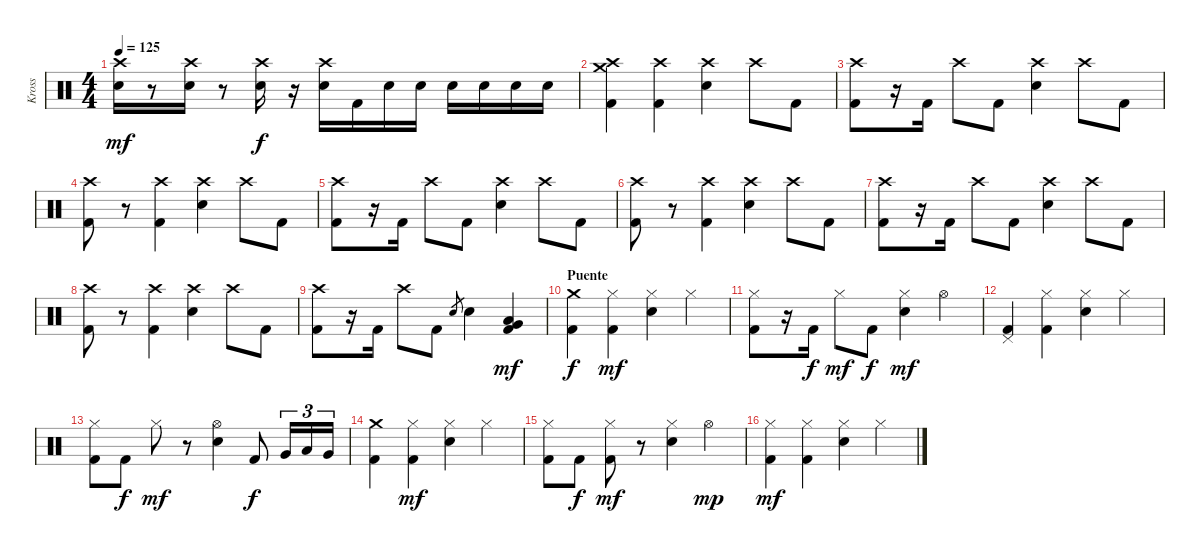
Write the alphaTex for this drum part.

\track ("Kross" "Kross") {instrument percussion}
\staff {score}
\articulation defaults
\ts (4 4)
\tempo 125
\clef neutral
\ks c
("Crash high (hit)" "Electric Snare (hit)").16{dy mf} r.8 ("Crash high (hit)" "Electric Snare (hit)").16 r.8 ("Crash high (hit)" "Electric Snare (hit)").16{dy f} r.16 ("Crash high (hit)" "Electric Snare (hit)").16 "Kick (hit) 2".16 "Electric Snare (hit)".16 "Electric Snare (hit)".16 "Electric Snare (hit)".16 "Electric Snare (hit)".16 "Electric Snare (hit)".16 "Electric Snare (hit)".16 |
("Crash high (hit)" "Crash medium (hit)" "Kick (hit) 2").4 ("Crash high (hit)" "Kick (hit) 2").4 ("Crash high (hit)" "Electric Snare (hit)").4 "Crash high (hit)".8 "Kick (hit) 2".8 |
("Crash high (hit)" "Kick (hit) 2").8 r.16 "Kick (hit) 2".16 "Crash high (hit)".8 "Kick (hit) 2".8 ("Crash high (hit)" "Electric Snare (hit)").4 "Crash high (hit)".8 "Kick (hit) 2".8 |
("Crash high (hit)" "Kick (hit) 2").8 r.8 ("Crash high (hit)" "Kick (hit) 2").4 ("Crash high (hit)" "Electric Snare (hit)").4 "Crash high (hit)".8 "Kick (hit) 2".8 |
("Crash high (hit)" "Kick (hit) 2").8 r.16 "Kick (hit) 2".16 "Crash high (hit)".8 "Kick (hit) 2".8 ("Crash high (hit)" "Electric Snare (hit)").4 "Crash high (hit)".8 "Kick (hit) 2".8 |
("Crash high (hit)" "Kick (hit) 2").8 r.8 ("Crash high (hit)" "Kick (hit) 2").4 ("Crash high (hit)" "Electric Snare (hit)").4 "Crash high (hit)".8 "Kick (hit) 2".8 |
("Crash high (hit)" "Kick (hit) 2").8 r.16 "Kick (hit) 2".16 "Crash high (hit)".8 "Kick (hit) 2".8 ("Crash high (hit)" "Electric Snare (hit)").4 "Crash high (hit)".8 "Kick (hit) 2".8 |
("Crash high (hit)" "Kick (hit) 2").8 r.8 ("Crash high (hit)" "Kick (hit) 2").4 ("Crash high (hit)" "Electric Snare (hit)").4 "Crash high (hit)".8 "Kick (hit) 2".8 |
("Crash high (hit)" "Kick (hit) 2").8 r.16 "Kick (hit) 2".16 "Crash high (hit)".8 "Kick (hit) 2".8 "Electric Snare (hit)".8{gr} "Electric Snare (hit)".4 ("Low Tom (hit)" "Very Low Tom (hit)" "Kick (hit) 2").4{dy mf} |
\section ("" "Puente")
("Crash medium (hit)" "Kick (hit) 2").4{dy f} ("Hi-Hat (closed)" "Kick (hit) 2").4{dy mf} ("Hi-Hat (closed)" "Electric Snare (hit)").4 "Hi-Hat (closed)".4 |
("Hi-Hat (closed)" "Kick (hit) 2").8 r.16 "Kick (hit) 2".16{dy f} "Hi-Hat (closed)".8{dy mf} "Kick (hit) 2".8{dy f} ("Hi-Hat (closed)" "Electric Snare (hit)").4{dy mf} "Hi-Hat (open)".4 |
("Pedal Hi-Hat (hit)" "Kick (hit) 2").4 ("Hi-Hat (closed)" "Kick (hit) 2").4 ("Hi-Hat (closed)" "Electric Snare (hit)").4 "Hi-Hat (closed)".4 |
("Hi-Hat (closed)" "Kick (hit) 2").8 "Kick (hit) 2".8{dy f} "Hi-Hat (closed)".8{dy mf} r.8 ("Hi-Hat (open)" "Electric Snare (hit)").4 "Kick (hit) 2".8{dy f} "Very Low Tom (hit)".16{tu (3 2)} "Low Tom (hit)".16{tu (3 2)} "Very Low Tom (hit)".16{tu (3 2)} |
("Crash medium (hit)" "Kick (hit) 2").4 ("Hi-Hat (closed)" "Kick (hit) 2").4{dy mf} ("Hi-Hat (closed)" "Electric Snare (hit)").4 "Hi-Hat (closed)".4 |
("Hi-Hat (closed)" "Kick (hit) 2").8 "Kick (hit) 2".8{dy f} ("Hi-Hat (closed)" "Kick (hit) 2").8{dy mf} r.8 ("Hi-Hat (closed)" "Electric Snare (hit)").4 "Hi-Hat (open)".4{dy mp} |
("Hi-Hat (closed)" "Kick (hit) 2").4{dy mf} ("Hi-Hat (closed)" "Kick (hit) 2").4 ("Hi-Hat (closed)" "Electric Snare (hit)").4 "Hi-Hat (closed)".4
